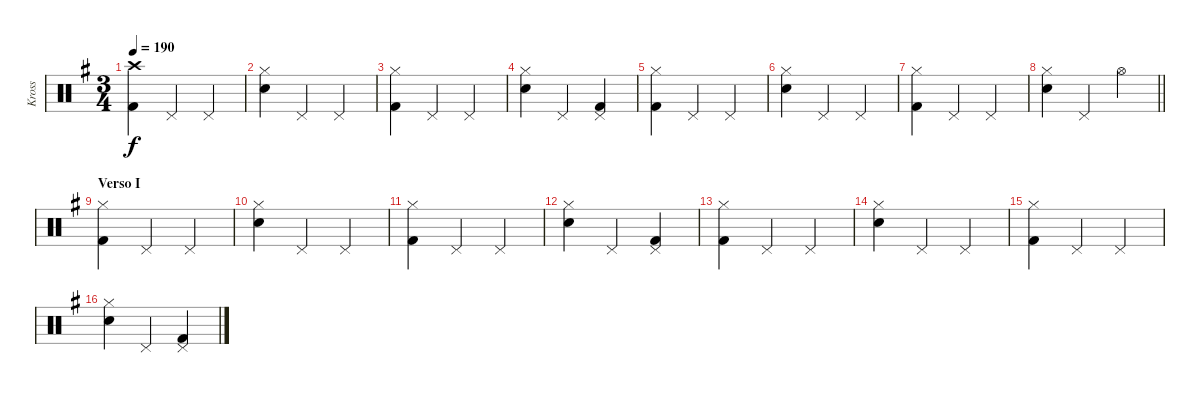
\track ("Kross" "Kross") {instrument percussion}
\staff {score}
\articulation defaults
\ts (3 4)
\tempo 190
\clef neutral
\ks g
("Crash high (hit)" "Kick (hit) 2").4{dy f} "Pedal Hi-Hat (hit)".4 "Pedal Hi-Hat (hit)".4 |
("Hi-Hat (closed)" "Snare (hit) 2").4 "Pedal Hi-Hat (hit)".4 "Pedal Hi-Hat (hit)".4 |
("Hi-Hat (closed)" "Kick (hit) 2").4 "Pedal Hi-Hat (hit)".4 "Pedal Hi-Hat (hit)".4 |
("Hi-Hat (closed)" "Snare (hit) 2").4 "Pedal Hi-Hat (hit)".4 ("Pedal Hi-Hat (hit)" "Kick (hit) 2").4 |
("Hi-Hat (closed)" "Kick (hit) 2").4 "Pedal Hi-Hat (hit)".4 "Pedal Hi-Hat (hit)".4 |
("Hi-Hat (closed)" "Snare (hit) 2").4 "Pedal Hi-Hat (hit)".4 "Pedal Hi-Hat (hit)".4 |
("Hi-Hat (closed)" "Kick (hit) 2").4 "Pedal Hi-Hat (hit)".4 "Pedal Hi-Hat (hit)".4 |
\barLineRight lightlight
("Hi-Hat (closed)" "Snare (hit) 2").4 "Pedal Hi-Hat (hit)".4 "Hi-Hat (open)".4 |
\section ("" "Verso I")
("Hi-Hat (closed)" "Kick (hit) 2").4 "Pedal Hi-Hat (hit)".4 "Pedal Hi-Hat (hit)".4 |
("Hi-Hat (closed)" "Snare (hit) 2").4 "Pedal Hi-Hat (hit)".4 "Pedal Hi-Hat (hit)".4 |
("Hi-Hat (closed)" "Kick (hit) 2").4 "Pedal Hi-Hat (hit)".4 "Pedal Hi-Hat (hit)".4 |
("Hi-Hat (closed)" "Snare (hit) 2").4 "Pedal Hi-Hat (hit)".4 ("Pedal Hi-Hat (hit)" "Kick (hit) 2").4 |
("Hi-Hat (closed)" "Kick (hit) 2").4 "Pedal Hi-Hat (hit)".4 "Pedal Hi-Hat (hit)".4 |
("Hi-Hat (closed)" "Snare (hit) 2").4 "Pedal Hi-Hat (hit)".4 "Pedal Hi-Hat (hit)".4 |
("Hi-Hat (closed)" "Kick (hit) 2").4 "Pedal Hi-Hat (hit)".4 "Pedal Hi-Hat (hit)".4 |
("Hi-Hat (closed)" "Snare (hit) 2").4 "Pedal Hi-Hat (hit)".4 ("Pedal Hi-Hat (hit)" "Kick (hit) 2").4
